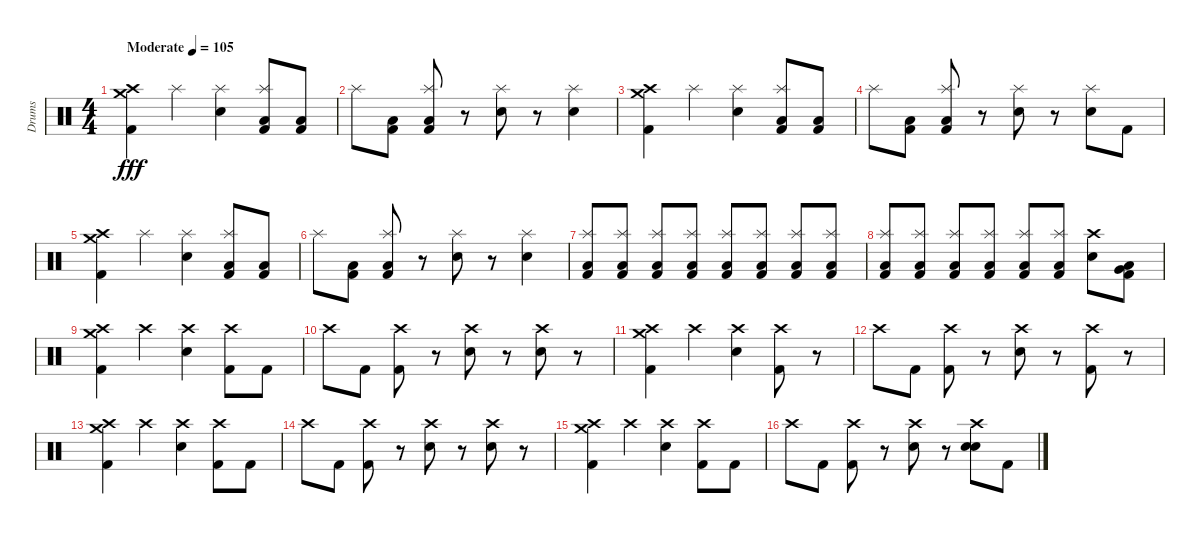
\track ("Drums" "Drums") {instrument percussion}
\staff {score}
\articulation defaults
\ts (4 4)
\tempo (105 "Moderate")
\clef neutral
\ks c
("Crash high (hit)" "Crash medium (hit)" "Kick (hit) 2").4{dy fff} "Splash (hit)".4 ("Splash (hit)" "Electric Snare (hit)").4 ("Splash (hit)" "Low Floor Tom (hit)" "Kick (hit) 2").8 ("Low Floor Tom (hit)" "Kick (hit) 2").8 |
"Splash (hit)".8 ("Low Floor Tom (hit)" "Kick (hit) 2").8 ("Splash (hit)" "Low Floor Tom (hit)" "Kick (hit) 2").8 r.8 ("Splash (hit)" "Electric Snare (hit)").8 r.8 ("Splash (hit)" "Electric Snare (hit)").4 |
("Crash high (hit)" "Crash medium (hit)" "Kick (hit) 2").4 "Splash (hit)".4 ("Splash (hit)" "Electric Snare (hit)").4 ("Splash (hit)" "Low Floor Tom (hit)" "Kick (hit) 2").8 ("Low Floor Tom (hit)" "Kick (hit) 2").8 |
"Splash (hit)".8 ("Low Floor Tom (hit)" "Kick (hit) 2").8 ("Splash (hit)" "Low Floor Tom (hit)" "Kick (hit) 2").8 r.8 ("Splash (hit)" "Electric Snare (hit)").8 r.8 ("Splash (hit)" "Electric Snare (hit)").8 "Kick (hit) 2".8 |
("Crash high (hit)" "Crash medium (hit)" "Kick (hit) 2").4 "Splash (hit)".4 ("Splash (hit)" "Electric Snare (hit)").4 ("Splash (hit)" "Low Floor Tom (hit)" "Kick (hit) 2").8 ("Low Floor Tom (hit)" "Kick (hit) 2").8 |
"Splash (hit)".8 ("Low Floor Tom (hit)" "Kick (hit) 2").8 ("Splash (hit)" "Low Floor Tom (hit)" "Kick (hit) 2").8 r.8 ("Splash (hit)" "Electric Snare (hit)").8 r.8 ("Splash (hit)" "Electric Snare (hit)").4 |
("Splash (hit)" "Low Floor Tom (hit)" "Kick (hit) 2").8 ("Splash (hit)" "Low Floor Tom (hit)" "Kick (hit) 2").8 ("Splash (hit)" "Low Floor Tom (hit)" "Kick (hit) 2").8 ("Splash (hit)" "Low Floor Tom (hit)" "Kick (hit) 2").8 ("Splash (hit)" "Low Floor Tom (hit)" "Kick (hit) 2").8 ("Splash (hit)" "Low Floor Tom (hit)" "Kick (hit) 2").8 ("Splash (hit)" "Low Floor Tom (hit)" "Kick (hit) 2").8 ("Splash (hit)" "Low Floor Tom (hit)" "Kick (hit) 2").8 |
("Splash (hit)" "Low Floor Tom (hit)" "Kick (hit) 2").8 ("Splash (hit)" "Low Floor Tom (hit)" "Kick (hit) 2").8 ("Splash (hit)" "Low Floor Tom (hit)" "Kick (hit) 2").8 ("Splash (hit)" "Low Floor Tom (hit)" "Kick (hit) 2").8 ("Splash (hit)" "Low Floor Tom (hit)" "Kick (hit) 2").8 ("Splash (hit)" "Low Floor Tom (hit)" "Kick (hit) 2").8 ("Crash high (hit)" "Electric Snare (hit)").8 ("Very Low Tom (hit)" "Low Floor Tom (hit)" "Kick (hit) 2").8 |
("Crash medium (hit)" "Crash high (hit)" "Kick (hit) 2").4 "Crash high (hit)".4 ("Crash high (hit)" "Electric Snare (hit)").4 ("Crash high (hit)" "Kick (hit) 2").8 "Kick (hit) 2".8 |
"Crash high (hit)".8 "Kick (hit) 2".8 ("Crash high (hit)" "Kick (hit) 2").8 r.8 ("Crash high (hit)" "Electric Snare (hit)").8 r.8 ("Crash high (hit)" "Electric Snare (hit)").8 r.8 |
("Crash medium (hit)" "Crash high (hit)" "Kick (hit) 2").4 "Crash high (hit)".4 ("Crash high (hit)" "Electric Snare (hit)").4 ("Crash high (hit)" "Kick (hit) 2").8 r.8 |
"Crash high (hit)".8 "Kick (hit) 2".8 ("Crash high (hit)" "Kick (hit) 2").8 r.8 ("Crash high (hit)" "Electric Snare (hit)").8 r.8 ("Crash high (hit)" "Kick (hit) 2").8 r.8 |
("Crash medium (hit)" "Crash high (hit)" "Kick (hit) 2").4 "Crash high (hit)".4 ("Crash high (hit)" "Electric Snare (hit)").4 ("Crash high (hit)" "Kick (hit) 2").8 "Kick (hit) 2".8 |
"Crash high (hit)".8 "Kick (hit) 2".8 ("Crash high (hit)" "Kick (hit) 2").8 r.8 ("Crash high (hit)" "Electric Snare (hit)").8 r.8 ("Crash high (hit)" "Electric Snare (hit)").8 r.8 |
("Crash medium (hit)" "Crash high (hit)" "Kick (hit) 2").4 "Crash high (hit)".4 ("Crash high (hit)" "Electric Snare (hit)").4 ("Crash high (hit)" "Kick (hit) 2").8 "Kick (hit) 2".8 |
"Crash high (hit)".8 "Kick (hit) 2".8 ("Crash high (hit)" "Kick (hit) 2").8 r.8 ("Crash high (hit)" "Electric Snare (hit)").8 r.8 ("Crash high (hit)" "Electric Snare (hit)" "Snare (hit) 2").8 "Kick (hit) 2".8
